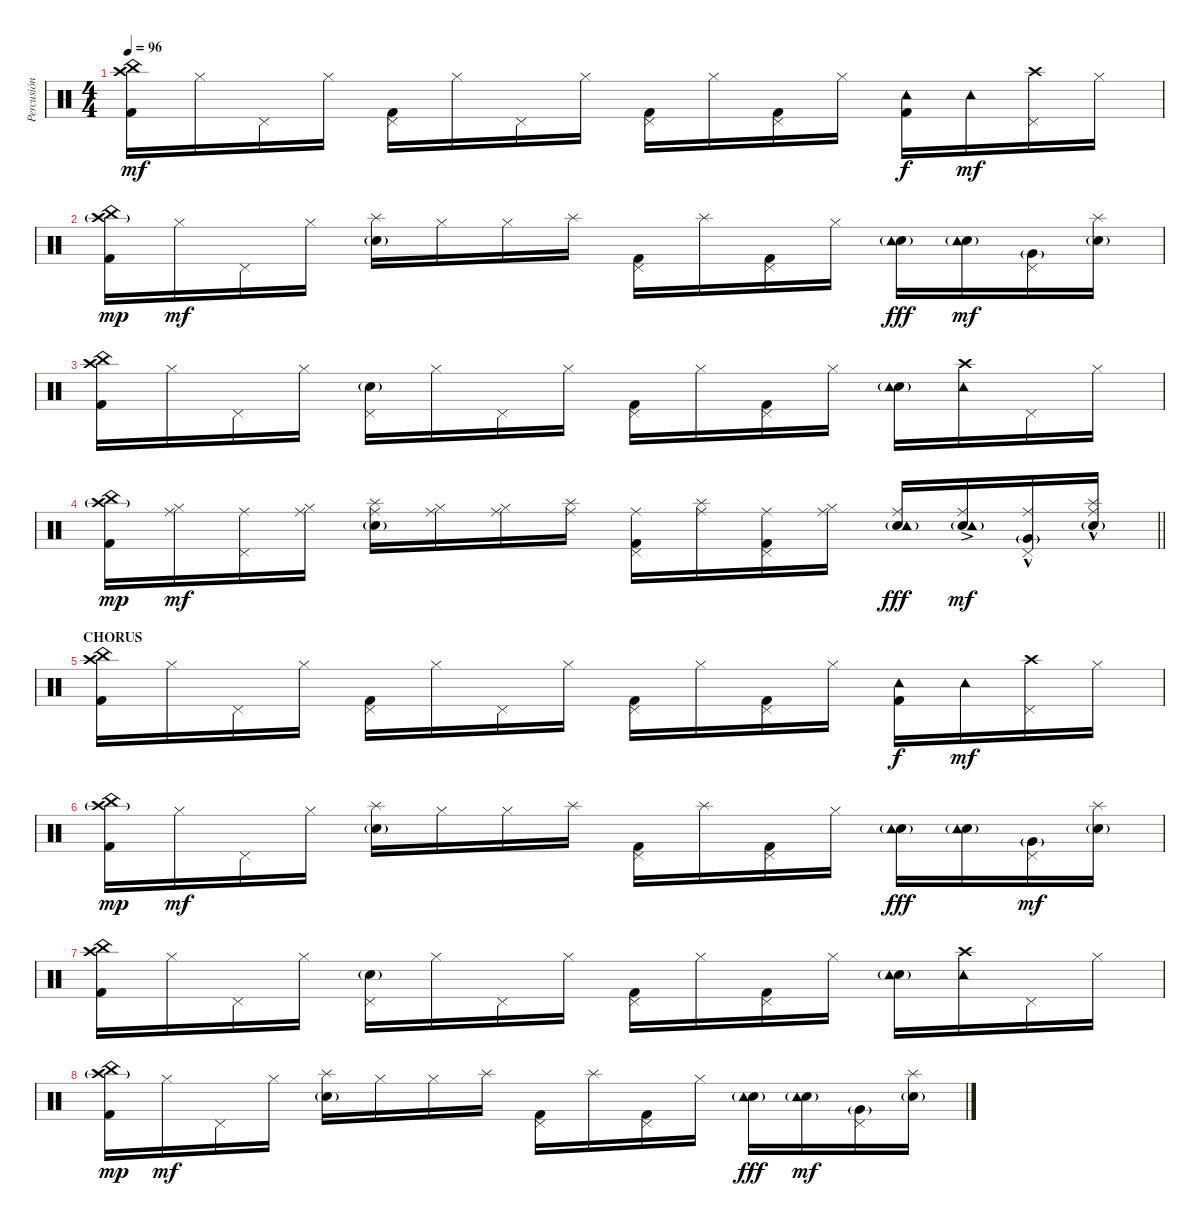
\track ("Percusión" "Percusión") {instrument percussion}
\staff {score}
\articulation defaults
\ts (4 4)
\tempo 96
\clef neutral
\ks c
("China (hit)" "Kick (hit) 2" "Crash high (hit)").16{dy mf} "Hi-Hat (closed)".16 "Pedal Hi-Hat (hit)".16 "Hi-Hat (closed)".16 ("Kick (hit) 2" "Pedal Hi-Hat (hit)").16 "Hi-Hat (closed)".16 "Pedal Hi-Hat (hit)".16 "Hi-Hat (closed)".16 ("Kick (hit) 2" "Pedal Hi-Hat (hit)").16 "Hi-Hat (closed)".16 ("Kick (hit) 2" "Pedal Hi-Hat (hit)").16 "Hi-Hat (closed)".16 ("Kick (hit) 2" "Tambourine (hit)").16{dy f} "Tambourine (hit)".16{dy mf} ("Crash high (hit)" "Pedal Hi-Hat (hit)").16 "Hi-Hat (closed)".16 |
("China (hit)" "Kick (hit) 2" "Crash high (hit)"{g}).16{dy mp} "Hi-Hat (closed)".16{dy mf} "Pedal Hi-Hat (hit)".16 "Hi-Hat (closed)".16 ("Electric Snare (hit)"{g} "Splash (hit)").16 "Hi-Hat (closed)".16 "Hi-Hat (closed)".16 "Splash (hit)".16 ("Kick (hit) 2" "Pedal Hi-Hat (hit)").16 "Splash (hit)".16 ("Kick (hit) 2" "Pedal Hi-Hat (hit)").16 "Hi-Hat (closed)".16 ("Electric Snare (hit)"{g} "Tambourine (hit)").16{dy fff} ("Electric Snare (hit)"{g} "Tambourine (hit)").16{dy mf} ("Very Low Tom (hit)"{g} "Pedal Hi-Hat (hit)").16 ("Electric Snare (hit)"{g} "Splash (hit)").16 |
("China (hit)" "Kick (hit) 2" "Crash high (hit)").16 "Hi-Hat (closed)".16 "Pedal Hi-Hat (hit)".16 "Hi-Hat (closed)".16 ("Electric Snare (hit)"{g} "Pedal Hi-Hat (hit)").16 "Hi-Hat (closed)".16 "Pedal Hi-Hat (hit)".16 "Hi-Hat (closed)".16 ("Kick (hit) 2" "Pedal Hi-Hat (hit)").16 "Hi-Hat (closed)".16 ("Kick (hit) 2" "Pedal Hi-Hat (hit)").16 "Hi-Hat (closed)".16 ("Electric Snare (hit)"{g} "Tambourine (hit)").16 ("Crash high (hit)" "Tambourine (hit)").16 "Pedal Hi-Hat (hit)".16 "Hi-Hat (closed)".16 |
\barLineRight lightlight
("China (hit)" "Kick (hit) 2" "Crash high (hit)"{g}).16{dy mp} ("Ride (middle)" "Hi-Hat (closed)").16{dy mf} ("Ride (middle)" "Pedal Hi-Hat (hit)").16 ("Ride (middle)" "Hi-Hat (closed)").16 ("Ride (middle)" "Electric Snare (hit)"{g} "Splash (hit)").16 ("Ride (middle)" "Hi-Hat (closed)").16 ("Ride (middle)" "Hi-Hat (closed)").16 ("Ride (middle)" "Splash (hit)").16 ("Ride (middle)" "Kick (hit) 2" "Pedal Hi-Hat (hit)").16 ("Ride (middle)" "Splash (hit)").16 ("Ride (middle)" "Kick (hit) 2" "Pedal Hi-Hat (hit)").16 ("Ride (middle)" "Hi-Hat (closed)").16 ("Ride (middle)" "Electric Snare (hit)"{g} "Tambourine (hit)").16{dy fff} ("Ride (middle)"{ac} "Electric Snare (hit)"{g} "Tambourine (hit)").16{dy mf} ("Ride (middle)"{hac} "Very Low Tom (hit)"{g} "Pedal Hi-Hat (hit)").16 ("Ride (middle)"{hac} "Electric Snare (hit)"{g} "Splash (hit)").16 |
\section ("" "CHORUS")
("China (hit)" "Kick (hit) 2" "Crash high (hit)").16 "Hi-Hat (closed)".16 "Pedal Hi-Hat (hit)".16 "Hi-Hat (closed)".16 ("Kick (hit) 2" "Pedal Hi-Hat (hit)").16 "Hi-Hat (closed)".16 "Pedal Hi-Hat (hit)".16 "Hi-Hat (closed)".16 ("Kick (hit) 2" "Pedal Hi-Hat (hit)").16 "Hi-Hat (closed)".16 ("Kick (hit) 2" "Pedal Hi-Hat (hit)").16 "Hi-Hat (closed)".16 ("Kick (hit) 2" "Tambourine (hit)").16{dy f} "Tambourine (hit)".16{dy mf} ("Crash high (hit)" "Pedal Hi-Hat (hit)").16 "Hi-Hat (closed)".16 |
("China (hit)" "Kick (hit) 2" "Crash high (hit)"{g}).16{dy mp} "Hi-Hat (closed)".16{dy mf} "Pedal Hi-Hat (hit)".16 "Hi-Hat (closed)".16 ("Electric Snare (hit)"{g} "Splash (hit)").16 "Hi-Hat (closed)".16 "Hi-Hat (closed)".16 "Splash (hit)".16 ("Kick (hit) 2" "Pedal Hi-Hat (hit)").16 "Splash (hit)".16 ("Kick (hit) 2" "Pedal Hi-Hat (hit)").16 "Hi-Hat (closed)".16 ("Electric Snare (hit)"{g} "Tambourine (hit)").16{dy fff} ("Electric Snare (hit)"{g} "Tambourine (hit)").16 ("Very Low Tom (hit)"{g} "Pedal Hi-Hat (hit)").16{dy mf} ("Electric Snare (hit)"{g} "Splash (hit)").16 |
("China (hit)" "Kick (hit) 2" "Crash high (hit)").16 "Hi-Hat (closed)".16 "Pedal Hi-Hat (hit)".16 "Hi-Hat (closed)".16 ("Electric Snare (hit)"{g} "Pedal Hi-Hat (hit)").16 "Hi-Hat (closed)".16 "Pedal Hi-Hat (hit)".16 "Hi-Hat (closed)".16 ("Kick (hit) 2" "Pedal Hi-Hat (hit)").16 "Hi-Hat (closed)".16 ("Kick (hit) 2" "Pedal Hi-Hat (hit)").16 "Hi-Hat (closed)".16 ("Electric Snare (hit)"{g} "Tambourine (hit)").16 ("Crash high (hit)" "Tambourine (hit)").16 "Pedal Hi-Hat (hit)".16 "Hi-Hat (closed)".16 |
("China (hit)" "Kick (hit) 2" "Crash high (hit)"{g}).16{dy mp} "Hi-Hat (closed)".16{dy mf} "Pedal Hi-Hat (hit)".16 "Hi-Hat (closed)".16 ("Electric Snare (hit)"{g} "Splash (hit)").16 "Hi-Hat (closed)".16 "Hi-Hat (closed)".16 "Splash (hit)".16 ("Kick (hit) 2" "Pedal Hi-Hat (hit)").16 "Splash (hit)".16 ("Kick (hit) 2" "Pedal Hi-Hat (hit)").16 "Hi-Hat (closed)".16 ("Electric Snare (hit)"{g} "Tambourine (hit)").16{dy fff} ("Electric Snare (hit)"{g} "Tambourine (hit)").16{dy mf} ("Very Low Tom (hit)"{g} "Pedal Hi-Hat (hit)").16 ("Electric Snare (hit)"{g} "Splash (hit)").16
